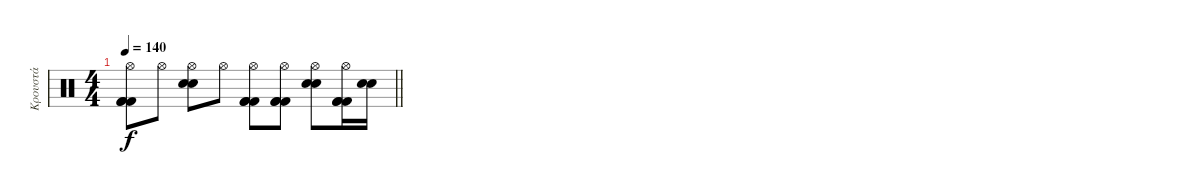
\track ("Κρουστά" "Κρουστά") {instrument percussion}
\staff {score}
\articulation defaults
\ts (4 4)
\tempo 140
\clef neutral
\barLineRight lightlight
\ks c
("Kick (hit) 2" "Hi-Hat (open)" "Kick (hit) 2" "Kick (hit) 2").8{dy f} "Hi-Hat (open)".8 ("Electric Snare (hit)" "Hi-Hat (open)" "Electric Snare (hit)").8 "Hi-Hat (open)".8 ("Kick (hit) 2" "Kick (hit) 2" "Kick (hit) 2" "Hi-Hat (open)").8 ("Kick (hit) 2" "Kick (hit) 2" "Kick (hit) 2" "Hi-Hat (open)").8 ("Electric Snare (hit)" "Electric Snare (hit)" "Hi-Hat (open)").8 ("Kick (hit) 2" "Kick (hit) 2" "Kick (hit) 2" "Hi-Hat (open)").16 ("Electric Snare (hit)" "Electric Snare (hit)").16
